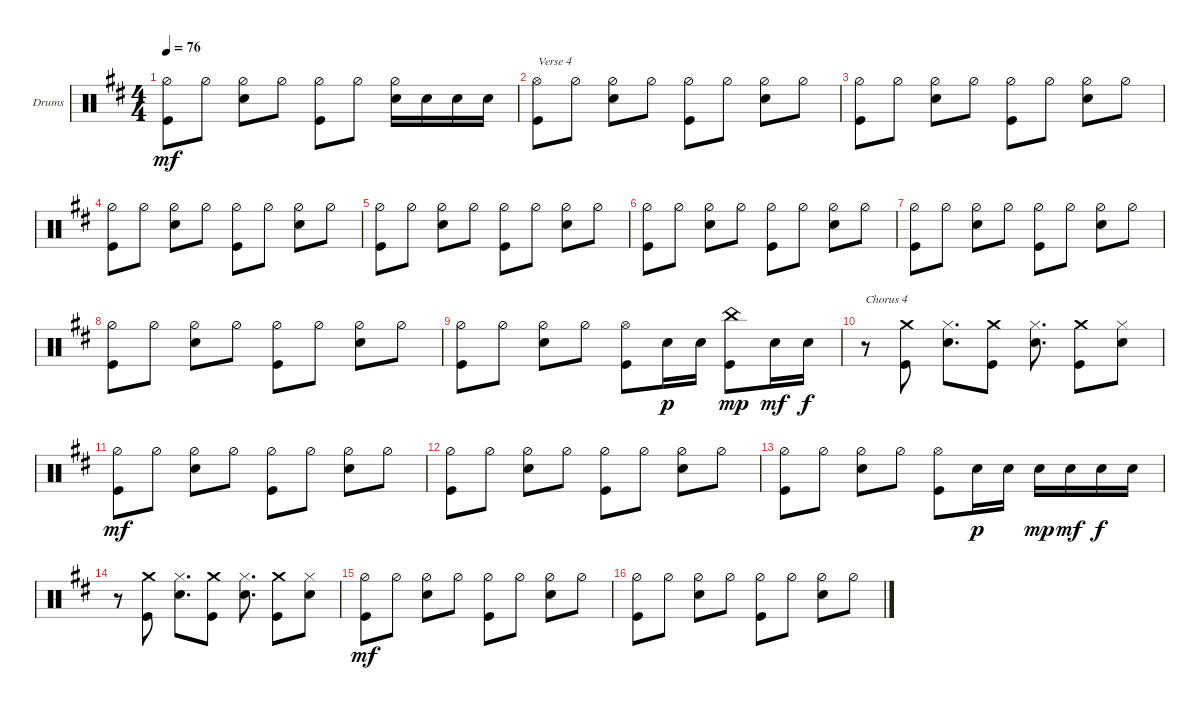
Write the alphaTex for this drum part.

\defaultSystemsLayout 4
\bracketExtendMode groupsimilarinstruments
\firstSystemTrackNameOrientation horizontal
\otherSystemsTrackNameOrientation horizontal
\track ("Drums" "Drums") {instrument percussion}
\staff {score}
\articulation defaults
\ts (4 4)
\tempo 76
\clef neutral
\ks bminor
("Hi-Hat (half)" "Kick (hit)").8{dy mf} "Hi-Hat (half)".8 ("Hi-Hat (half)" "Snare (hit) 2").8 "Hi-Hat (half)".8 ("Hi-Hat (half)" "Kick (hit)").8 "Hi-Hat (half)".8 ("Hi-Hat (half)" "Snare (hit) 2").16 "Snare (hit) 2".16 "Snare (hit) 2".16 "Snare (hit) 2".16 |
("Kick (hit)" "Hi-Hat (open)").8{txt "Verse 4"} "Hi-Hat (half)".8 ("Hi-Hat (half)" "Snare (hit) 2").8 "Hi-Hat (half)".8 ("Hi-Hat (half)" "Kick (hit)").8 "Hi-Hat (half)".8 ("Hi-Hat (half)" "Snare (hit) 2").8 "Hi-Hat (half)".8 |
("Hi-Hat (half)" "Kick (hit)").8 "Hi-Hat (half)".8 ("Hi-Hat (half)" "Snare (hit) 2").8 "Hi-Hat (half)".8 ("Hi-Hat (half)" "Kick (hit)").8 "Hi-Hat (half)".8 ("Hi-Hat (half)" "Snare (hit) 2").8 "Hi-Hat (half)".8 |
("Hi-Hat (half)" "Kick (hit)").8 "Hi-Hat (half)".8 ("Hi-Hat (half)" "Snare (hit) 2").8 "Hi-Hat (half)".8 ("Hi-Hat (half)" "Kick (hit)").8 "Hi-Hat (half)".8 ("Hi-Hat (half)" "Snare (hit) 2").8 "Hi-Hat (half)".8 |
("Hi-Hat (half)" "Kick (hit)").8 "Hi-Hat (half)".8 ("Hi-Hat (half)" "Snare (hit) 2").8 "Hi-Hat (half)".8 ("Hi-Hat (half)" "Kick (hit)").8 "Hi-Hat (half)".8 ("Hi-Hat (half)" "Snare (hit) 2").8 "Hi-Hat (half)".8 |
("Hi-Hat (half)" "Kick (hit)").8 "Hi-Hat (half)".8 ("Hi-Hat (half)" "Snare (hit) 2").8 "Hi-Hat (half)".8 ("Hi-Hat (half)" "Kick (hit)").8 "Hi-Hat (half)".8 ("Hi-Hat (half)" "Snare (hit) 2").8 "Hi-Hat (half)".8 |
("Hi-Hat (half)" "Kick (hit)").8 "Hi-Hat (half)".8 ("Hi-Hat (half)" "Snare (hit) 2").8 "Hi-Hat (half)".8 ("Hi-Hat (half)" "Kick (hit)").8 "Hi-Hat (half)".8 ("Hi-Hat (half)" "Snare (hit) 2").8 "Hi-Hat (half)".8 |
("Hi-Hat (half)" "Kick (hit)").8 "Hi-Hat (half)".8 ("Hi-Hat (half)" "Snare (hit) 2").8 "Hi-Hat (half)".8 ("Hi-Hat (half)" "Kick (hit)").8 "Hi-Hat (half)".8 ("Hi-Hat (half)" "Snare (hit) 2").8 "Hi-Hat (half)".8 |
("Hi-Hat (half)" "Kick (hit)").8 "Hi-Hat (half)".8 ("Hi-Hat (half)" "Snare (hit) 2").8 "Hi-Hat (half)".8 ("Hi-Hat (open)" "Kick (hit)").8 "Snare (hit) 2".16{dy p} "Snare (hit) 2".16 ("Kick (hit)" "China (hit)").8{dy mp} "Snare (hit) 2".16{dy mf} "Snare (hit) 2".16{dy f} |
r.8{txt "Chorus 4"} ("Kick (hit)" "Crash medium (hit)").8 ("Snare (hit) 2" "Hi-Hat (closed)").8{d} ("Kick (hit)" "Crash medium (hit)").8 ("Snare (hit) 2" "Hi-Hat (closed)").8{d} ("Kick (hit)" "Crash medium (hit)").8 ("Snare (hit) 2" "Hi-Hat (closed)").8 |
("Hi-Hat (half)" "Kick (hit)").8{dy mf} "Hi-Hat (half)".8 ("Hi-Hat (half)" "Snare (hit) 2").8 "Hi-Hat (half)".8 ("Hi-Hat (half)" "Kick (hit)").8 "Hi-Hat (half)".8 ("Hi-Hat (half)" "Snare (hit) 2").8 "Hi-Hat (half)".8 |
("Hi-Hat (half)" "Kick (hit)").8 "Hi-Hat (half)".8 ("Hi-Hat (half)" "Snare (hit) 2").8 "Hi-Hat (half)".8 ("Hi-Hat (half)" "Kick (hit)").8 "Hi-Hat (half)".8 ("Hi-Hat (half)" "Snare (hit) 2").8 "Hi-Hat (half)".8 |
("Hi-Hat (half)" "Kick (hit)").8 "Hi-Hat (half)".8 ("Hi-Hat (half)" "Snare (hit) 2").8 "Hi-Hat (half)".8 ("Hi-Hat (open)" "Kick (hit)").8 "Snare (hit) 2".16{dy p} "Snare (hit) 2".16 "Snare (hit) 2".16{dy mp} "Snare (hit) 2".16{dy mf} "Snare (hit) 2".16{dy f} "Snare (hit) 2".16 |
r.8 ("Kick (hit)" "Crash medium (hit)").8 ("Snare (hit) 2" "Hi-Hat (closed)").8{d} ("Kick (hit)" "Crash medium (hit)").8 ("Snare (hit) 2" "Hi-Hat (closed)").8{d} ("Kick (hit)" "Crash medium (hit)").8 ("Snare (hit) 2" "Hi-Hat (closed)").8 |
("Hi-Hat (half)" "Kick (hit)").8{dy mf} "Hi-Hat (half)".8 ("Hi-Hat (half)" "Snare (hit) 2").8 "Hi-Hat (half)".8 ("Hi-Hat (half)" "Kick (hit)").8 "Hi-Hat (half)".8 ("Hi-Hat (half)" "Snare (hit) 2").8 "Hi-Hat (half)".8 |
("Hi-Hat (half)" "Kick (hit)").8 "Hi-Hat (half)".8 ("Hi-Hat (half)" "Snare (hit) 2").8 "Hi-Hat (half)".8 ("Hi-Hat (half)" "Kick (hit)").8 "Hi-Hat (half)".8 ("Hi-Hat (half)" "Snare (hit) 2").8 "Hi-Hat (half)".8
